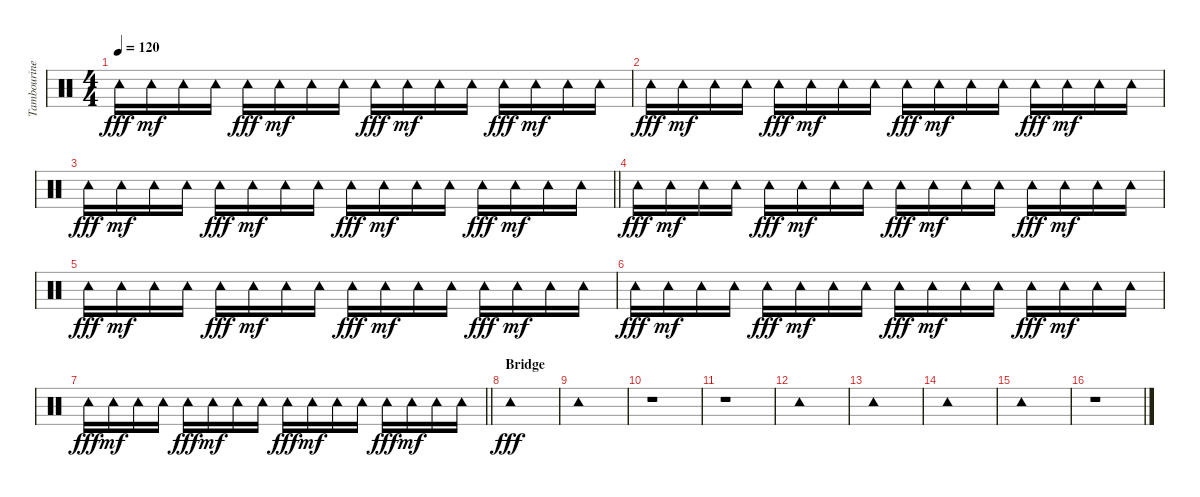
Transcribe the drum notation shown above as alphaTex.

\track ("Tambourine" "Tambourine") {instrument percussion}
\staff {score}
\articulation defaults
\ts (4 4)
\tempo 120
\clef neutral
\ks c "Tambourine (hit)".16{dy fff} "Tambourine (hit)".16{dy mf} "Tambourine (hit)".16 "Tambourine (hit)".16 "Tambourine (hit)".16{dy fff} "Tambourine (hit)".16{dy mf} "Tambourine (hit)".16 "Tambourine (hit)".16 "Tambourine (hit)".16{dy fff} "Tambourine (hit)".16{dy mf} "Tambourine (hit)".16 "Tambourine (hit)".16 "Tambourine (hit)".16{dy fff} "Tambourine (hit)".16{dy mf} "Tambourine (hit)".16 "Tambourine (hit)".16
|
"Tambourine (hit)".16{dy fff} "Tambourine (hit)".16{dy mf} "Tambourine (hit)".16 "Tambourine (hit)".16 "Tambourine (hit)".16{dy fff} "Tambourine (hit)".16{dy mf} "Tambourine (hit)".16 "Tambourine (hit)".16 "Tambourine (hit)".16{dy fff} "Tambourine (hit)".16{dy mf} "Tambourine (hit)".16 "Tambourine (hit)".16 "Tambourine (hit)".16{dy fff} "Tambourine (hit)".16{dy mf} "Tambourine (hit)".16 "Tambourine (hit)".16 |
\barLineRight lightlight "Tambourine (hit)".16{dy fff} "Tambourine (hit)".16{dy mf} "Tambourine (hit)".16 "Tambourine (hit)".16 "Tambourine (hit)".16{dy fff} "Tambourine (hit)".16{dy mf} "Tambourine (hit)".16 "Tambourine (hit)".16 "Tambourine (hit)".16{dy fff} "Tambourine (hit)".16{dy mf} "Tambourine (hit)".16 "Tambourine (hit)".16 "Tambourine (hit)".16{dy fff} "Tambourine (hit)".16{dy mf} "Tambourine (hit)".16 "Tambourine (hit)".16
|
"Tambourine (hit)".16{dy fff} "Tambourine (hit)".16{dy mf} "Tambourine (hit)".16 "Tambourine (hit)".16 "Tambourine (hit)".16{dy fff} "Tambourine (hit)".16{dy mf} "Tambourine (hit)".16 "Tambourine (hit)".16 "Tambourine (hit)".16{dy fff} "Tambourine (hit)".16{dy mf} "Tambourine (hit)".16 "Tambourine (hit)".16 "Tambourine (hit)".16{dy fff} "Tambourine (hit)".16{dy mf} "Tambourine (hit)".16 "Tambourine (hit)".16 |
"Tambourine (hit)".16{dy fff} "Tambourine (hit)".16{dy mf} "Tambourine (hit)".16 "Tambourine (hit)".16 "Tambourine (hit)".16{dy fff} "Tambourine (hit)".16{dy mf} "Tambourine (hit)".16 "Tambourine (hit)".16 "Tambourine (hit)".16{dy fff} "Tambourine (hit)".16{dy mf} "Tambourine (hit)".16 "Tambourine (hit)".16 "Tambourine (hit)".16{dy fff} "Tambourine (hit)".16{dy mf} "Tambourine (hit)".16 "Tambourine (hit)".16 |
"Tambourine (hit)".16{dy fff} "Tambourine (hit)".16{dy mf} "Tambourine (hit)".16 "Tambourine (hit)".16 "Tambourine (hit)".16{dy fff} "Tambourine (hit)".16{dy mf} "Tambourine (hit)".16 "Tambourine (hit)".16 "Tambourine (hit)".16{dy fff} "Tambourine (hit)".16{dy mf} "Tambourine (hit)".16 "Tambourine (hit)".16 "Tambourine (hit)".16{dy fff} "Tambourine (hit)".16{dy mf} "Tambourine (hit)".16 "Tambourine (hit)".16 |
\barLineRight lightlight "Tambourine (hit)".16{dy fff} "Tambourine (hit)".16{dy mf} "Tambourine (hit)".16 "Tambourine (hit)".16 "Tambourine (hit)".16{dy fff} "Tambourine (hit)".16{dy mf} "Tambourine (hit)".16 "Tambourine (hit)".16 "Tambourine (hit)".16{dy fff} "Tambourine (hit)".16{dy mf} "Tambourine (hit)".16 "Tambourine (hit)".16 "Tambourine (hit)".16{dy fff} "Tambourine (hit)".16{dy mf} "Tambourine (hit)".16 "Tambourine (hit)".16
|
\section ("" "Bridge")
"Tambourine (hit)".1{dy fff} |
"Tambourine (hit)".1 |
r.1 |
r.1 |
"Tambourine (hit)".1 |
"Tambourine (hit)".1 |
"Tambourine (hit)".1 |
"Tambourine (hit)".1 |
r.1
